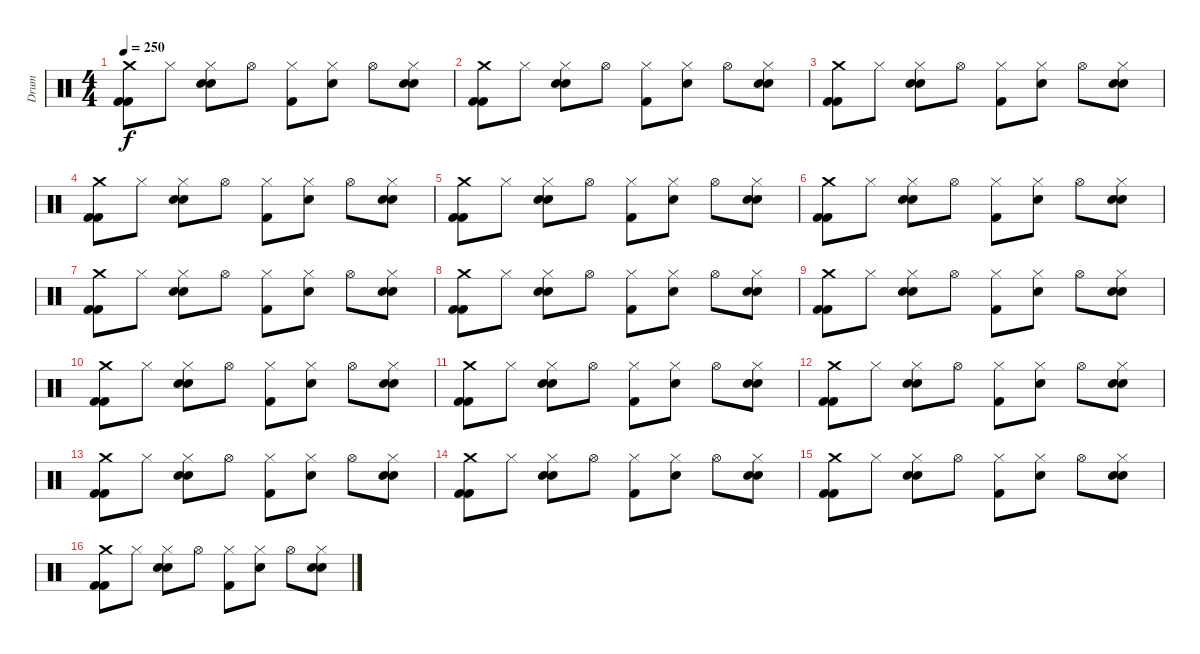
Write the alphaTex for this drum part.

\track ("Drum" "Drum") {instrument percussion}
\staff {score}
\articulation defaults
\ts (4 4)
\tempo 250
\clef neutral
\ks c
("Crash medium (hit)" "Kick (hit) 2" "Kick (hit) 2").8{dy f} "Hi-Hat (closed)".8 ("Hi-Hat (closed)" "Snare (hit) 2" "Snare (hit) 2").8 "Hi-Hat (open)".8 ("Hi-Hat (closed)" "Kick (hit) 2").8 ("Hi-Hat (closed)" "Snare (hit) 2").8 "Hi-Hat (open)".8 ("Hi-Hat (closed)" "Snare (hit) 2" "Snare (hit) 2").8 |
("Crash medium (hit)" "Kick (hit) 2" "Kick (hit) 2").8 "Hi-Hat (closed)".8 ("Hi-Hat (closed)" "Snare (hit) 2" "Snare (hit) 2").8 "Hi-Hat (open)".8 ("Hi-Hat (closed)" "Kick (hit) 2").8 ("Hi-Hat (closed)" "Snare (hit) 2").8 "Hi-Hat (open)".8 ("Hi-Hat (closed)" "Snare (hit) 2" "Snare (hit) 2").8 |
("Crash medium (hit)" "Kick (hit) 2" "Kick (hit) 2").8 "Hi-Hat (closed)".8 ("Hi-Hat (closed)" "Snare (hit) 2" "Snare (hit) 2").8 "Hi-Hat (open)".8 ("Hi-Hat (closed)" "Kick (hit) 2").8 ("Hi-Hat (closed)" "Snare (hit) 2").8 "Hi-Hat (open)".8 ("Hi-Hat (closed)" "Snare (hit) 2" "Snare (hit) 2").8 |
("Crash medium (hit)" "Kick (hit) 2" "Kick (hit) 2").8 "Hi-Hat (closed)".8 ("Hi-Hat (closed)" "Snare (hit) 2" "Snare (hit) 2").8 "Hi-Hat (open)".8 ("Hi-Hat (closed)" "Kick (hit) 2").8 ("Hi-Hat (closed)" "Snare (hit) 2").8 "Hi-Hat (open)".8 ("Hi-Hat (closed)" "Snare (hit) 2" "Snare (hit) 2").8 |
("Crash medium (hit)" "Kick (hit) 2" "Kick (hit) 2").8 "Hi-Hat (closed)".8 ("Hi-Hat (closed)" "Snare (hit) 2" "Snare (hit) 2").8 "Hi-Hat (open)".8 ("Hi-Hat (closed)" "Kick (hit) 2").8 ("Hi-Hat (closed)" "Snare (hit) 2").8 "Hi-Hat (open)".8 ("Hi-Hat (closed)" "Snare (hit) 2" "Snare (hit) 2").8 |
("Crash medium (hit)" "Kick (hit) 2" "Kick (hit) 2").8 "Hi-Hat (closed)".8 ("Hi-Hat (closed)" "Snare (hit) 2" "Snare (hit) 2").8 "Hi-Hat (open)".8 ("Hi-Hat (closed)" "Kick (hit) 2").8 ("Hi-Hat (closed)" "Snare (hit) 2").8 "Hi-Hat (open)".8 ("Hi-Hat (closed)" "Snare (hit) 2" "Snare (hit) 2").8 |
("Crash medium (hit)" "Kick (hit) 2" "Kick (hit) 2").8 "Hi-Hat (closed)".8 ("Hi-Hat (closed)" "Snare (hit) 2" "Snare (hit) 2").8 "Hi-Hat (open)".8 ("Hi-Hat (closed)" "Kick (hit) 2").8 ("Hi-Hat (closed)" "Snare (hit) 2").8 "Hi-Hat (open)".8 ("Hi-Hat (closed)" "Snare (hit) 2" "Snare (hit) 2").8 |
("Crash medium (hit)" "Kick (hit) 2" "Kick (hit) 2").8 "Hi-Hat (closed)".8 ("Hi-Hat (closed)" "Snare (hit) 2" "Snare (hit) 2").8 "Hi-Hat (open)".8 ("Hi-Hat (closed)" "Kick (hit) 2").8 ("Hi-Hat (closed)" "Snare (hit) 2").8 "Hi-Hat (open)".8 ("Hi-Hat (closed)" "Snare (hit) 2" "Snare (hit) 2").8 |
("Crash medium (hit)" "Kick (hit) 2" "Kick (hit) 2").8 "Hi-Hat (closed)".8 ("Hi-Hat (closed)" "Snare (hit) 2" "Snare (hit) 2").8 "Hi-Hat (open)".8 ("Hi-Hat (closed)" "Kick (hit) 2").8 ("Hi-Hat (closed)" "Snare (hit) 2").8 "Hi-Hat (open)".8 ("Hi-Hat (closed)" "Snare (hit) 2" "Snare (hit) 2").8 |
("Crash medium (hit)" "Kick (hit) 2" "Kick (hit) 2").8 "Hi-Hat (closed)".8 ("Hi-Hat (closed)" "Snare (hit) 2" "Snare (hit) 2").8 "Hi-Hat (open)".8 ("Hi-Hat (closed)" "Kick (hit) 2").8 ("Hi-Hat (closed)" "Snare (hit) 2").8 "Hi-Hat (open)".8 ("Hi-Hat (closed)" "Snare (hit) 2" "Snare (hit) 2").8 |
("Crash medium (hit)" "Kick (hit) 2" "Kick (hit) 2").8 "Hi-Hat (closed)".8 ("Hi-Hat (closed)" "Snare (hit) 2" "Snare (hit) 2").8 "Hi-Hat (open)".8 ("Hi-Hat (closed)" "Kick (hit) 2").8 ("Hi-Hat (closed)" "Snare (hit) 2").8 "Hi-Hat (open)".8 ("Hi-Hat (closed)" "Snare (hit) 2" "Snare (hit) 2").8 |
("Crash medium (hit)" "Kick (hit) 2" "Kick (hit) 2").8 "Hi-Hat (closed)".8 ("Hi-Hat (closed)" "Snare (hit) 2" "Snare (hit) 2").8 "Hi-Hat (open)".8 ("Hi-Hat (closed)" "Kick (hit) 2").8 ("Hi-Hat (closed)" "Snare (hit) 2").8 "Hi-Hat (open)".8 ("Hi-Hat (closed)" "Snare (hit) 2" "Snare (hit) 2").8 |
("Crash medium (hit)" "Kick (hit) 2" "Kick (hit) 2").8 "Hi-Hat (closed)".8 ("Hi-Hat (closed)" "Snare (hit) 2" "Snare (hit) 2").8 "Hi-Hat (open)".8 ("Hi-Hat (closed)" "Kick (hit) 2").8 ("Hi-Hat (closed)" "Snare (hit) 2").8 "Hi-Hat (open)".8 ("Hi-Hat (closed)" "Snare (hit) 2" "Snare (hit) 2").8 |
("Crash medium (hit)" "Kick (hit) 2" "Kick (hit) 2").8 "Hi-Hat (closed)".8 ("Hi-Hat (closed)" "Snare (hit) 2" "Snare (hit) 2").8 "Hi-Hat (open)".8 ("Hi-Hat (closed)" "Kick (hit) 2").8 ("Hi-Hat (closed)" "Snare (hit) 2").8 "Hi-Hat (open)".8 ("Hi-Hat (closed)" "Snare (hit) 2" "Snare (hit) 2").8 |
("Crash medium (hit)" "Kick (hit) 2" "Kick (hit) 2").8 "Hi-Hat (closed)".8 ("Hi-Hat (closed)" "Snare (hit) 2" "Snare (hit) 2").8 "Hi-Hat (open)".8 ("Hi-Hat (closed)" "Kick (hit) 2").8 ("Hi-Hat (closed)" "Snare (hit) 2").8 "Hi-Hat (open)".8 ("Hi-Hat (closed)" "Snare (hit) 2" "Snare (hit) 2").8 |
("Crash medium (hit)" "Kick (hit) 2" "Kick (hit) 2").8 "Hi-Hat (closed)".8 ("Hi-Hat (closed)" "Snare (hit) 2" "Snare (hit) 2").8 "Hi-Hat (open)".8 ("Hi-Hat (closed)" "Kick (hit) 2").8 ("Hi-Hat (closed)" "Snare (hit) 2").8 "Hi-Hat (open)".8 ("Hi-Hat (closed)" "Snare (hit) 2" "Snare (hit) 2").8
